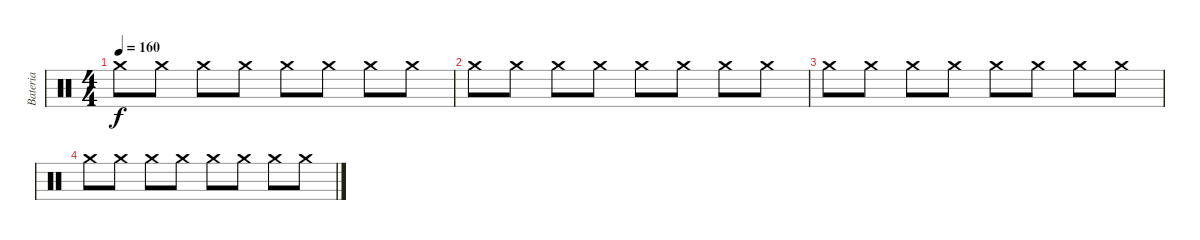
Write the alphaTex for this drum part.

\track ("Bateria" "Bateria") {instrument percussion}
\staff {score}
\articulation defaults
\ts (4 4)
\tempo 160
\clef neutral
\ks c "Crash medium (hit)".8{dy f} "Crash medium (hit)".8 "Crash medium (hit)".8 "Crash medium (hit)".8 "Crash medium (hit)".8 "Crash medium (hit)".8 "Crash medium (hit)".8 "Crash medium (hit)".8
|
"Crash medium (hit)".8 "Crash medium (hit)".8 "Crash medium (hit)".8 "Crash medium (hit)".8 "Crash medium (hit)".8 "Crash medium (hit)".8 "Crash medium (hit)".8 "Crash medium (hit)".8 |
"Crash medium (hit)".8 "Crash medium (hit)".8 "Crash medium (hit)".8 "Crash medium (hit)".8 "Crash medium (hit)".8 "Crash medium (hit)".8 "Crash medium (hit)".8 "Crash medium (hit)".8 |
"Crash medium (hit)".8 "Crash medium (hit)".8 "Crash medium (hit)".8 "Crash medium (hit)".8 "Crash medium (hit)".8 "Crash medium (hit)".8 "Crash medium (hit)".8 "Crash medium (hit)".8
